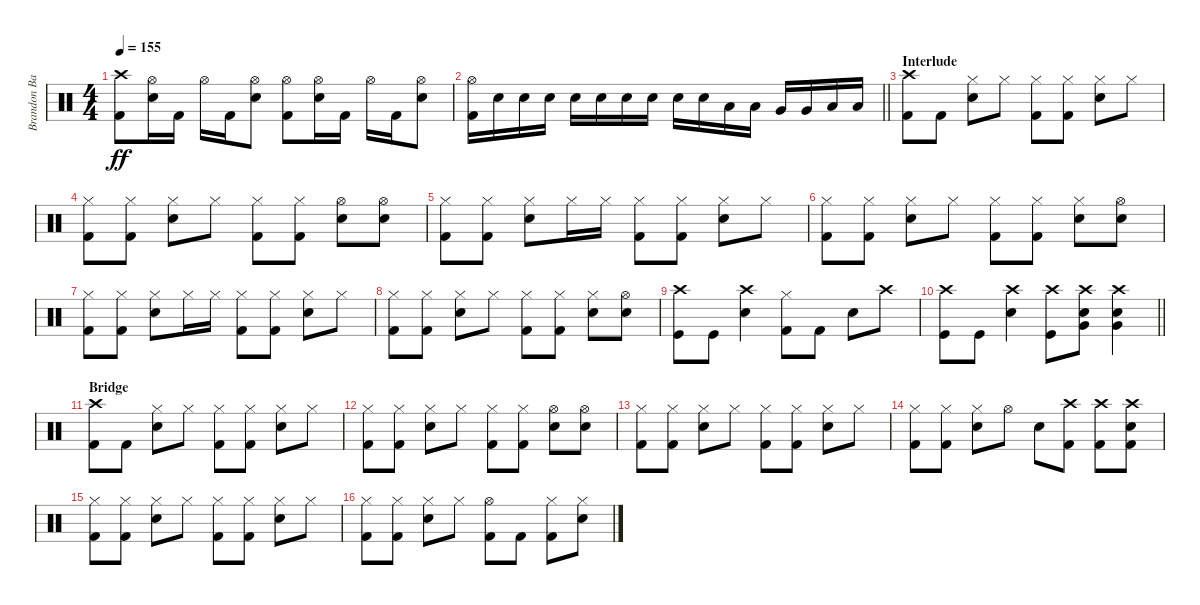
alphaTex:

\track ("Brandon Barnes - Drums" "Brandon Ba") {instrument percussion}
\staff {score}
\articulation defaults
\ts (4 4)
\tempo 155
\clef neutral
\ks c
("Kick (hit) 2" "Crash high (hit)").8{dy ff} ("Snare (hit) 2" "Hi-Hat (open)").16 "Kick (hit) 2".16 "Hi-Hat (open)".16 "Kick (hit) 2".16 ("Snare (hit) 2" "Hi-Hat (open)").8 ("Kick (hit) 2" "Hi-Hat (open)").8 ("Snare (hit) 2" "Hi-Hat (open)").16 "Kick (hit) 2".16 "Hi-Hat (open)".16 "Kick (hit) 2".16 ("Snare (hit) 2" "Hi-Hat (open)").8 |
\barLineRight lightlight
("Kick (hit) 2" "Hi-Hat (open)").16 "Snare (hit) 2".16 "Snare (hit) 2".16 "Snare (hit) 2".16 "Snare (hit) 2".16 "Snare (hit) 2".16 "Snare (hit) 2".16 "Snare (hit) 2".16 "Snare (hit) 2".16 "Snare (hit) 2".16 "Low Tom (hit)".16 "Low Tom (hit)".16 "Very Low Tom (hit)".16 "Very Low Tom (hit)".16 "Low Floor Tom (hit)".16 "Low Floor Tom (hit)".16 |
\section ("" "Interlude")
("Kick (hit) 2" "Crash high (hit)").8 "Kick (hit) 2".8 ("Snare (hit) 2" "Hi-Hat (closed)").8 "Hi-Hat (closed)".8 ("Kick (hit) 2" "Hi-Hat (closed)").8 ("Hi-Hat (closed)" "Kick (hit) 2").8 ("Snare (hit) 2" "Hi-Hat (closed)").8 "Hi-Hat (closed)".8 |
("Kick (hit) 2" "Hi-Hat (closed)").8 ("Hi-Hat (closed)" "Kick (hit) 2").8 ("Snare (hit) 2" "Hi-Hat (closed)").8 "Hi-Hat (closed)".8 ("Kick (hit) 2" "Hi-Hat (closed)").8 ("Hi-Hat (closed)" "Kick (hit) 2").8 ("Snare (hit) 2" "Hi-Hat (open)").8 ("Snare (hit) 2" "Hi-Hat (open)").8 |
("Kick (hit) 2" "Hi-Hat (closed)").8 ("Hi-Hat (closed)" "Kick (hit) 2").8 ("Snare (hit) 2" "Hi-Hat (closed)").8 "Hi-Hat (closed)".16 "Hi-Hat (closed)".16 ("Kick (hit) 2" "Hi-Hat (closed)").8 ("Hi-Hat (closed)" "Kick (hit) 2").8 ("Snare (hit) 2" "Hi-Hat (closed)").8 "Hi-Hat (closed)".8 |
("Kick (hit) 2" "Hi-Hat (closed)").8 ("Hi-Hat (closed)" "Kick (hit) 2").8 ("Snare (hit) 2" "Hi-Hat (closed)").8 "Hi-Hat (closed)".8 ("Kick (hit) 2" "Hi-Hat (closed)").8 ("Hi-Hat (closed)" "Kick (hit) 2").8 ("Snare (hit) 2" "Hi-Hat (closed)").8 ("Snare (hit) 2" "Hi-Hat (open)").8 |
("Kick (hit) 2" "Hi-Hat (closed)").8 ("Hi-Hat (closed)" "Kick (hit) 2").8 ("Snare (hit) 2" "Hi-Hat (closed)").8 "Hi-Hat (closed)".16 "Hi-Hat (closed)".16 ("Kick (hit) 2" "Hi-Hat (closed)").8 ("Hi-Hat (closed)" "Kick (hit) 2").8 ("Snare (hit) 2" "Hi-Hat (closed)").8 "Hi-Hat (closed)".8 |
("Kick (hit) 2" "Hi-Hat (closed)").8 ("Hi-Hat (closed)" "Kick (hit) 2").8 ("Snare (hit) 2" "Hi-Hat (closed)").8 "Hi-Hat (closed)".8 ("Kick (hit) 2" "Hi-Hat (closed)").8 ("Hi-Hat (closed)" "Kick (hit) 2").8 ("Snare (hit) 2" "Hi-Hat (closed)").8 ("Snare (hit) 2" "Hi-Hat (open)").8 |
("Crash high (hit)" "Kick (hit)").8 "Kick (hit)".8 ("Snare (hit) 2" "Crash high (hit)").4 ("Kick (hit) 2" "Hi-Hat (closed)").8 "Kick (hit) 2".8 "Snare (hit) 2".8 "Crash high (hit)".8 |
\barLineRight lightlight
("Crash high (hit)" "Kick (hit)").8 "Kick (hit)".8 ("Snare (hit) 2" "Crash high (hit)").4 ("Crash high (hit)" "Kick (hit)").8 ("Snare (hit) 2" "Crash high (hit)" "Very Low Tom (hit)").8 ("Snare (hit) 2" "Crash high (hit)" "Very Low Tom (hit)").4 |
\section ("" "Bridge")
("Kick (hit) 2" "Crash high (hit)").8 "Kick (hit) 2".8 ("Snare (hit) 2" "Hi-Hat (closed)").8 "Hi-Hat (closed)".8 ("Kick (hit) 2" "Hi-Hat (closed)").8 ("Hi-Hat (closed)" "Kick (hit) 2").8 ("Snare (hit) 2" "Hi-Hat (closed)").8 "Hi-Hat (closed)".8 |
("Kick (hit) 2" "Hi-Hat (closed)").8 ("Hi-Hat (closed)" "Kick (hit) 2").8 ("Snare (hit) 2" "Hi-Hat (closed)").8 "Hi-Hat (closed)".8 ("Kick (hit) 2" "Hi-Hat (closed)").8 ("Hi-Hat (closed)" "Kick (hit) 2").8 ("Snare (hit) 2" "Hi-Hat (open)").8 ("Snare (hit) 2" "Hi-Hat (open)").8 |
("Kick (hit) 2" "Hi-Hat (closed)").8 ("Hi-Hat (closed)" "Kick (hit) 2").8 ("Snare (hit) 2" "Hi-Hat (closed)").8 "Hi-Hat (closed)".8 ("Kick (hit) 2" "Hi-Hat (closed)").8 ("Hi-Hat (closed)" "Kick (hit) 2").8 ("Snare (hit) 2" "Hi-Hat (closed)").8 "Hi-Hat (closed)".8 |
("Kick (hit) 2" "Hi-Hat (closed)").8 ("Hi-Hat (closed)" "Kick (hit) 2").8 ("Snare (hit) 2" "Hi-Hat (closed)").8 "Hi-Hat (open)".8 "Snare (hit) 2".8 ("Kick (hit) 2" "Crash high (hit)").8 ("Kick (hit) 2" "Crash high (hit)").8 ("Kick (hit) 2" "Crash high (hit)" "Snare (hit) 2").8 |
("Kick (hit) 2" "Hi-Hat (closed)").8 ("Hi-Hat (closed)" "Kick (hit) 2").8 ("Snare (hit) 2" "Hi-Hat (closed)").8 "Hi-Hat (closed)".8 ("Kick (hit) 2" "Hi-Hat (closed)").8 ("Hi-Hat (closed)" "Kick (hit) 2").8 ("Snare (hit) 2" "Hi-Hat (closed)").8 "Hi-Hat (closed)".8 |
("Kick (hit) 2" "Hi-Hat (closed)").8 ("Hi-Hat (closed)" "Kick (hit) 2").8 ("Snare (hit) 2" "Hi-Hat (closed)").8 "Hi-Hat (closed)".8 ("Kick (hit) 2" "Hi-Hat (open)").8 "Kick (hit) 2".8 ("Hi-Hat (closed)" "Kick (hit) 2").8 ("Snare (hit) 2" "Hi-Hat (closed)").8
